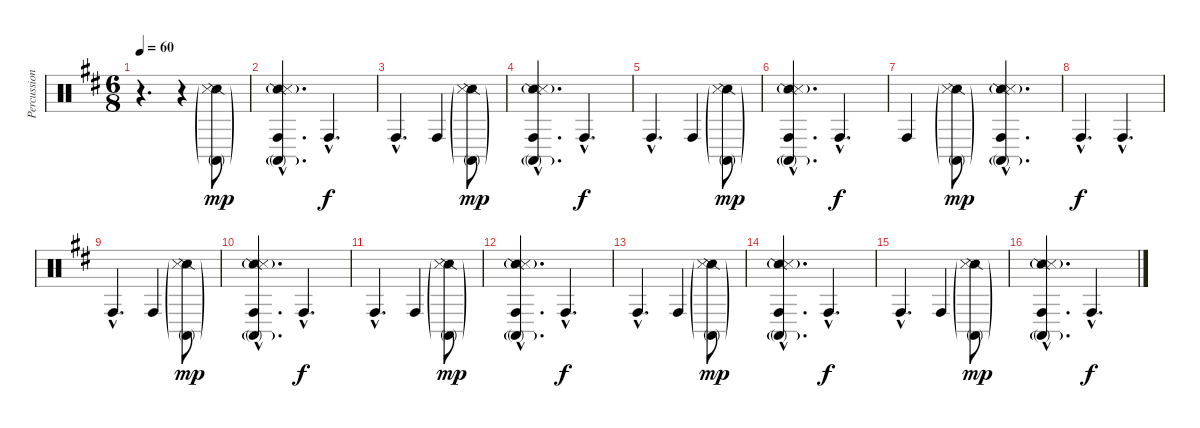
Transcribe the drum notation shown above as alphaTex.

\track ("Percussions" "Percussion") {instrument percussion}
\staff {score}
\articulation defaults
\ts (6 8)
\tempo 60
\clef neutral
\ks bminor
r.4{d dy mp} r.4 ("Snare (side stick) 2"{g} "Conga high (mute)"{g} "Metronome (hit)"{g}).8 |
("Conga high (hit)"{hac} "Snare (side stick) 2"{g hac} "Conga high (mute)"{g hac} "Metronome (hit)"{g hac}).4{d} "Conga high (hit)"{hac}.4{d dy f} |
"Conga high (hit)"{hac}.4{d} "Conga high (hit)".4 ("Snare (side stick) 2"{g} "Conga high (mute)"{g} "Metronome (hit)"{g}).8{dy mp} |
("Conga high (hit)"{hac} "Snare (side stick) 2"{g hac} "Conga high (mute)"{g hac} "Metronome (hit)"{g hac}).4{d} "Conga high (hit)"{hac}.4{d dy f} |
"Conga high (hit)"{hac}.4{d} "Conga high (hit)".4 ("Snare (side stick) 2"{g} "Conga high (mute)"{g} "Metronome (hit)"{g}).8{dy mp} |
("Conga high (hit)"{hac} "Snare (side stick) 2"{g hac} "Conga high (mute)"{g hac} "Metronome (hit)"{g hac}).4{d} "Conga high (hit)"{hac}.4{d dy f} |
"Conga high (hit)".4 ("Snare (side stick) 2"{g} "Conga high (mute)"{g} "Metronome (hit)"{g}).8{dy mp} ("Conga high (hit)"{hac} "Snare (side stick) 2"{g hac} "Conga high (mute)"{g hac} "Metronome (hit)"{g hac}).4{d} |
"Conga high (hit)"{hac}.4{d dy f} "Conga high (hit)"{hac}.4{d} |
"Conga high (hit)"{hac}.4{d} "Conga high (hit)".4 ("Snare (side stick) 2"{g} "Conga high (mute)"{g} "Metronome (hit)"{g}).8{dy mp} |
("Conga high (hit)"{hac} "Snare (side stick) 2"{g hac} "Conga high (mute)"{g hac} "Metronome (hit)"{g hac}).4{d} "Conga high (hit)"{hac}.4{d dy f} |
"Conga high (hit)"{hac}.4{d} "Conga high (hit)".4 ("Snare (side stick) 2"{g} "Conga high (mute)"{g} "Metronome (hit)"{g}).8{dy mp} |
("Conga high (hit)"{hac} "Snare (side stick) 2"{g hac} "Conga high (mute)"{g hac} "Metronome (hit)"{g hac}).4{d} "Conga high (hit)"{hac}.4{d dy f} |
"Conga high (hit)"{hac}.4{d} "Conga high (hit)".4 ("Snare (side stick) 2"{g} "Conga high (mute)"{g} "Metronome (hit)"{g}).8{dy mp} |
("Conga high (hit)"{hac} "Snare (side stick) 2"{g hac} "Conga high (mute)"{g hac} "Metronome (hit)"{g hac}).4{d} "Conga high (hit)"{hac}.4{d dy f} |
"Conga high (hit)"{hac}.4{d} "Conga high (hit)".4 ("Snare (side stick) 2"{g} "Conga high (mute)"{g} "Metronome (hit)"{g}).8{dy mp} |
("Conga high (hit)"{hac} "Snare (side stick) 2"{g hac} "Conga high (mute)"{g hac} "Metronome (hit)"{g hac}).4{d} "Conga high (hit)"{hac}.4{d dy f}
